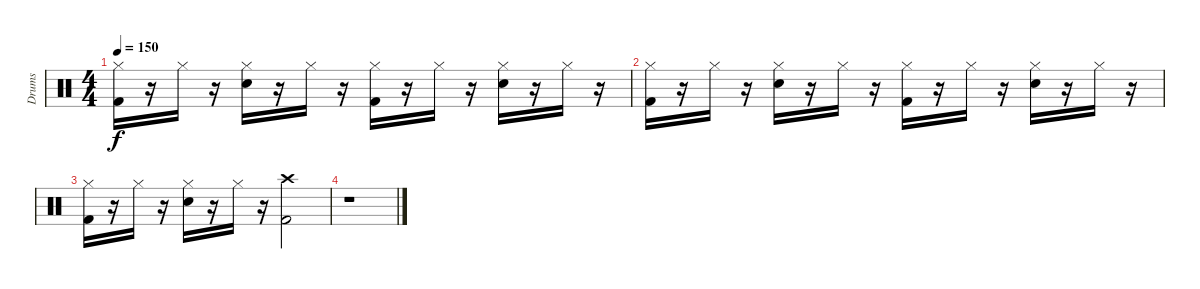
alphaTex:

\track ("Drums" "Drums") {instrument percussion}
\staff {score}
\articulation defaults
\ts (4 4)
\tempo 150
\clef neutral
\ks c
("Hi-Hat (closed)" "Kick (hit) 2").16{dy f} r.16 "Hi-Hat (closed)".16 r.16 ("Hi-Hat (closed)" "Electric Snare (hit)").16 r.16 "Hi-Hat (closed)".16 r.16 ("Hi-Hat (closed)" "Kick (hit) 2").16 r.16 "Hi-Hat (closed)".16 r.16 ("Hi-Hat (closed)" "Electric Snare (hit)").16 r.16 "Hi-Hat (closed)".16 r.16 |
("Hi-Hat (closed)" "Kick (hit) 2").16 r.16 "Hi-Hat (closed)".16 r.16 ("Hi-Hat (closed)" "Electric Snare (hit)").16 r.16 "Hi-Hat (closed)".16 r.16 ("Hi-Hat (closed)" "Kick (hit) 2").16 r.16 "Hi-Hat (closed)".16 r.16 ("Hi-Hat (closed)" "Electric Snare (hit)").16 r.16 "Hi-Hat (closed)".16 r.16 |
("Hi-Hat (closed)" "Kick (hit) 2").16 r.16 "Hi-Hat (closed)".16 r.16 ("Hi-Hat (closed)" "Electric Snare (hit)").16 r.16 "Hi-Hat (closed)".16 r.16 ("Crash high (hit)" "Kick (hit) 2").2 |
r.1
